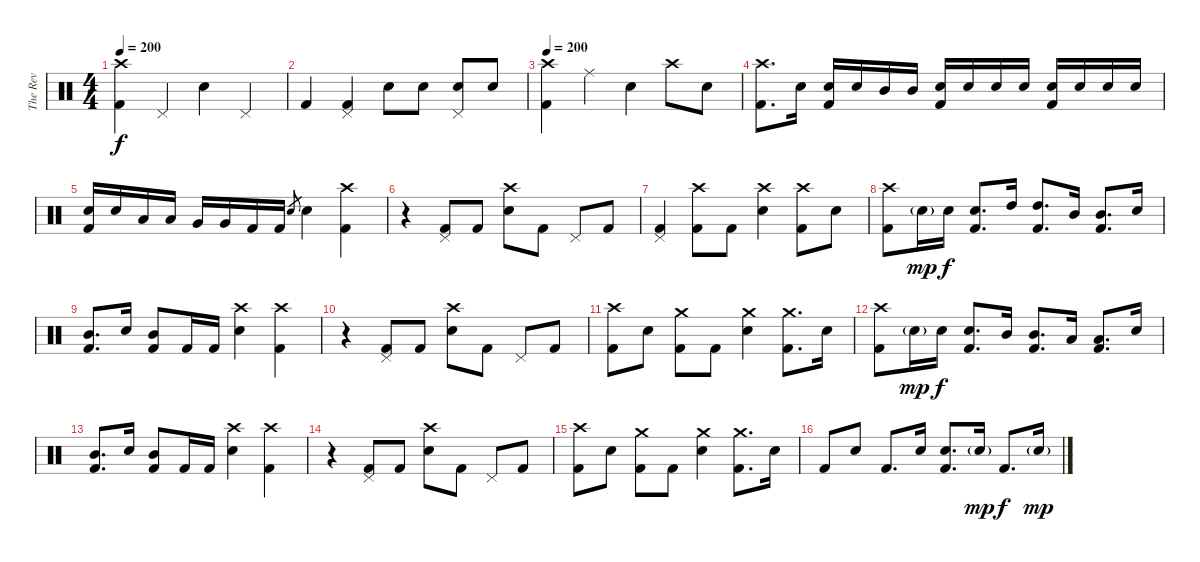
\track ("The Rev" "The Rev") {instrument percussion}
\staff {score}
\articulation defaults
\ts (4 4)
\tempo 200
\clef neutral
\ks c
("Crash high (hit)" "Kick (hit) 2").4{dy f} "Pedal Hi-Hat (hit)".4 "Electric Snare (hit)".4 "Pedal Hi-Hat (hit)".4 |
"Kick (hit) 2".4 ("Pedal Hi-Hat (hit)" "Kick (hit) 2").4 "Electric Snare (hit)".8 "Electric Snare (hit)".8 ("Pedal Hi-Hat (hit)" "Electric Snare (hit)").8 "Electric Snare (hit)".8 |
\tempo 200
("Crash high (hit)" "Kick (hit) 2").4 "Ride (middle)".4 "Electric Snare (hit)".4 "Crash high (hit)".8 "Electric Snare (hit)".8 |
("Crash high (hit)" "Kick (hit) 2").8{d} "Electric Snare (hit)".16 ("Electric Snare (hit)" "Kick (hit) 2").16 "Electric Snare (hit)".16 "Mid Tom (hit)".16 "Mid Tom (hit)".16 ("Electric Snare (hit)" "Kick (hit) 2").16 "Electric Snare (hit)".16 "Electric Snare (hit)".16 "Electric Snare (hit)".16 ("Electric Snare (hit)" "Kick (hit) 2").16 "Electric Snare (hit)".16 "Electric Snare (hit)".16 "Electric Snare (hit)".16 |
("Electric Snare (hit)" "Kick (hit) 2").16 "Electric Snare (hit)".16 "Low Tom (hit)".16 "Low Tom (hit)".16 "Very Low Tom (hit)".16 "Very Low Tom (hit)".16 "Kick (hit) 2".16 "Kick (hit) 2".16 "Electric Snare (hit)".8{gr} "Electric Snare (hit)".4 ("Crash high (hit)" "Kick (hit) 2").4 |
r.4 ("Pedal Hi-Hat (hit)" "Kick (hit) 2").8 "Kick (hit) 2".8 ("Crash high (hit)" "Electric Snare (hit)").8 "Kick (hit) 2".8 "Pedal Hi-Hat (hit)".8 "Kick (hit) 2".8 |
("Pedal Hi-Hat (hit)" "Kick (hit) 2").4 ("Crash high (hit)" "Kick (hit) 2").8 "Kick (hit) 2".8 ("Crash high (hit)" "Electric Snare (hit)").4 ("Crash high (hit)" "Kick (hit) 2").8 "Electric Snare (hit)".8 |
("Crash high (hit)" "Kick (hit) 2").8 "Electric Snare (hit)"{g}.16{dy mp} "Electric Snare (hit)".16{dy f} ("Electric Snare (hit)" "Kick (hit) 2").8{d} "High Tom (hit)".16 ("High Tom (hit)" "Kick (hit) 2").8{d} "Mid Tom (hit)".16 ("Mid Tom (hit)" "Kick (hit) 2").8{d} "Electric Snare (hit)".16 |
("Mid Tom (hit)" "Kick (hit) 2").8{d} "Electric Snare (hit)".16 ("Mid Tom (hit)" "Kick (hit) 2").8 "Kick (hit) 2".16 "Kick (hit) 2".16 ("Crash high (hit)" "Electric Snare (hit)").4 ("Crash high (hit)" "Kick (hit) 2").4 |
r.4 ("Pedal Hi-Hat (hit)" "Kick (hit) 2").8 "Kick (hit) 2".8 ("Crash high (hit)" "Electric Snare (hit)").8 "Kick (hit) 2".8 "Pedal Hi-Hat (hit)".8 "Kick (hit) 2".8 |
("Crash high (hit)" "Kick (hit) 2").8 "Electric Snare (hit)".8 ("Crash medium (hit)" "Kick (hit) 2").8 "Kick (hit) 2".8 ("Crash medium (hit)" "Electric Snare (hit)").4 ("Crash medium (hit)" "Kick (hit) 2").8{d} "Electric Snare (hit)".16 |
("Crash high (hit)" "Kick (hit) 2").8 "Electric Snare (hit)"{g}.16{dy mp} "Electric Snare (hit)".16{dy f} ("Electric Snare (hit)" "Kick (hit) 2").8{d} "Mid Tom (hit)".16 ("Mid Tom (hit)" "Kick (hit) 2").8{d} "Low Tom (hit)".16 ("Low Tom (hit)" "Kick (hit) 2").8{d} "Electric Snare (hit)".16 |
("Mid Tom (hit)" "Kick (hit) 2").8{d} "Electric Snare (hit)".16 ("Mid Tom (hit)" "Kick (hit) 2").8 "Kick (hit) 2".16 "Kick (hit) 2".16 ("Crash high (hit)" "Electric Snare (hit)").4 ("Crash high (hit)" "Kick (hit) 2").4 |
r.4 ("Pedal Hi-Hat (hit)" "Kick (hit) 2").8 "Kick (hit) 2".8 ("Crash high (hit)" "Electric Snare (hit)").8 "Kick (hit) 2".8 "Pedal Hi-Hat (hit)".8 "Kick (hit) 2".8 |
("Crash high (hit)" "Kick (hit) 2").8 "Electric Snare (hit)".8 ("Crash medium (hit)" "Kick (hit) 2").8 "Kick (hit) 2".8 ("Crash medium (hit)" "Electric Snare (hit)").4 ("Crash medium (hit)" "Kick (hit) 2").8{d} "Electric Snare (hit)".16 |
"Kick (hit) 2".8 "Electric Snare (hit)".8 "Kick (hit) 2".8{d} "Electric Snare (hit)".16 ("Electric Snare (hit)" "Kick (hit) 2").8{d} "Electric Snare (hit)"{g}.16{dy mp} "Kick (hit) 2".8{d dy f} "Electric Snare (hit)"{g}.16{dy mp}
